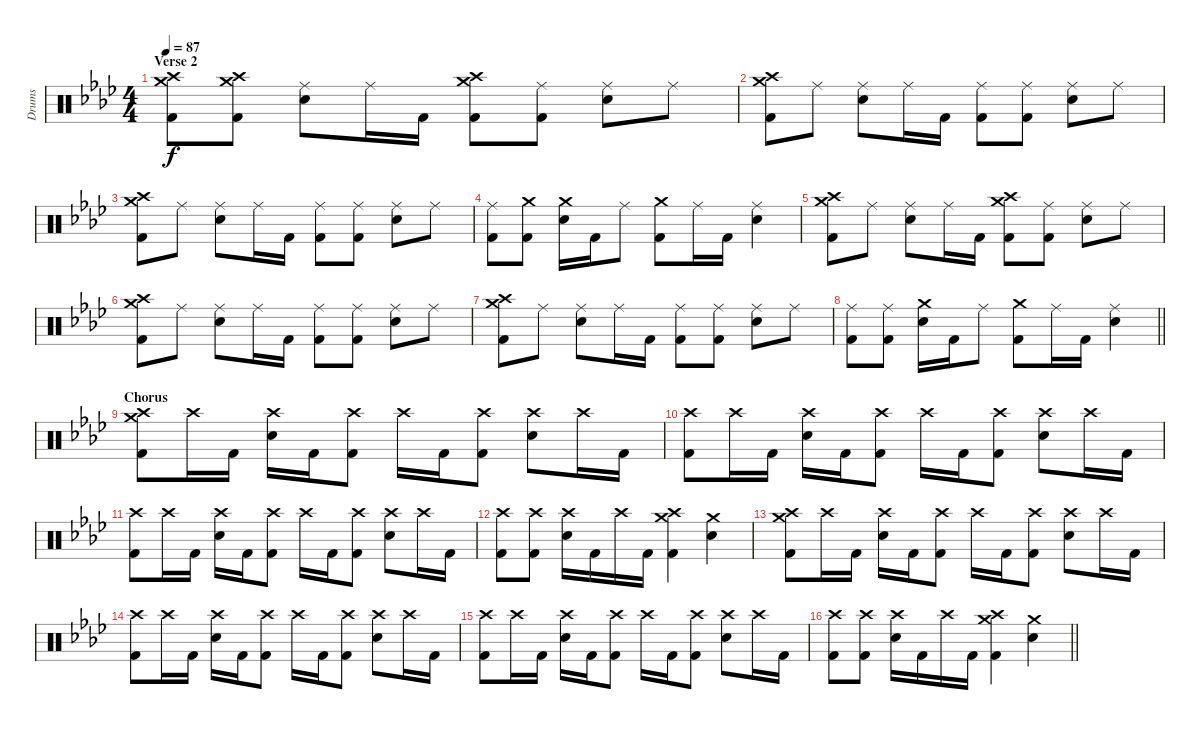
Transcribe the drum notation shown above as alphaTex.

\track ("Drums" "Drums") {instrument percussion}
\staff {score}
\articulation defaults
\ts (4 4)
\section ("" "Verse 2")
\tempo 87
\clef neutral
\ks fminor
("Crash medium (hit)" "Crash high (hit)" "Kick (hit) 2").8{dy f} ("Crash medium (hit)" "Crash high (hit)" "Kick (hit) 2").8 ("Ride (middle)" "Electric Snare (hit)").8 "Ride (middle)".16 "Kick (hit) 2".16 ("Crash medium (hit)" "Crash high (hit)" "Kick (hit) 2").8 ("Ride (middle)" "Kick (hit) 2").8 ("Ride (middle)" "Electric Snare (hit)").8 "Ride (middle)".8 |
("Crash medium (hit)" "Crash high (hit)" "Kick (hit) 2").8 "Ride (middle)".8 ("Ride (middle)" "Electric Snare (hit)").8 "Ride (middle)".16 "Kick (hit) 2".16 ("Ride (middle)" "Kick (hit) 2").8 ("Ride (middle)" "Kick (hit) 2").8 ("Ride (middle)" "Electric Snare (hit)").8 "Ride (middle)".8 |
("Crash medium (hit)" "Crash high (hit)" "Kick (hit) 2").8 "Ride (middle)".8 ("Ride (middle)" "Electric Snare (hit)").8 "Ride (middle)".16 "Kick (hit) 2".16 ("Ride (middle)" "Kick (hit) 2").8 ("Ride (middle)" "Kick (hit) 2").8 ("Ride (middle)" "Electric Snare (hit)").8 "Ride (middle)".8 |
("Ride (middle)" "Kick (hit) 2").8 ("Crash medium (hit)" "Kick (hit) 2").8 ("Crash medium (hit)" "Electric Snare (hit)").16 "Kick (hit) 2".16 "Ride (middle)".8 ("Crash medium (hit)" "Kick (hit) 2").8 "Ride (middle)".16 "Kick (hit) 2".16 ("Ride (middle)" "Electric Snare (hit)").4 |
("Crash medium (hit)" "Crash high (hit)" "Kick (hit) 2").8 "Ride (middle)".8 ("Ride (middle)" "Electric Snare (hit)").8 "Ride (middle)".16 "Kick (hit) 2".16 ("Crash medium (hit)" "Crash high (hit)" "Kick (hit) 2").8 ("Ride (middle)" "Kick (hit) 2").8 ("Ride (middle)" "Electric Snare (hit)").8 "Ride (middle)".8 |
("Crash medium (hit)" "Crash high (hit)" "Kick (hit) 2").8 "Ride (middle)".8 ("Ride (middle)" "Electric Snare (hit)").8 "Ride (middle)".16 "Kick (hit) 2".16 ("Ride (middle)" "Kick (hit) 2").8 ("Ride (middle)" "Kick (hit) 2").8 ("Ride (middle)" "Electric Snare (hit)").8 "Ride (middle)".8 |
("Crash medium (hit)" "Crash high (hit)" "Kick (hit) 2").8 "Ride (middle)".8 ("Ride (middle)" "Electric Snare (hit)").8 "Ride (middle)".16 "Kick (hit) 2".16 ("Ride (middle)" "Kick (hit) 2").8 ("Ride (middle)" "Kick (hit) 2").8 ("Ride (middle)" "Electric Snare (hit)").8 "Ride (middle)".8 |
\barLineRight lightlight
("Ride (middle)" "Kick (hit) 2").8 ("Ride (middle)" "Kick (hit) 2").8 ("Crash medium (hit)" "Electric Snare (hit)").16 "Kick (hit) 2".16 "Ride (middle)".8 ("Crash medium (hit)" "Kick (hit) 2").8 "Ride (middle)".16 "Kick (hit) 2".16 ("Ride (middle)" "Electric Snare (hit)").4 |
\section ("" "Chorus")
("Crash medium (hit)" "Crash high (hit)" "Kick (hit) 2").8 "Crash high (hit)".16 "Kick (hit) 2".16 ("Crash high (hit)" "Electric Snare (hit)").16 "Kick (hit) 2".16 ("Crash high (hit)" "Kick (hit) 2").8 "Crash high (hit)".16 "Kick (hit) 2".16 ("Crash high (hit)" "Kick (hit) 2").8 ("Crash high (hit)" "Electric Snare (hit)").8 "Crash high (hit)".16 "Kick (hit) 2".16 |
("Crash high (hit)" "Kick (hit) 2").8 "Crash high (hit)".16 "Kick (hit) 2".16 ("Crash high (hit)" "Electric Snare (hit)").16 "Kick (hit) 2".16 ("Crash high (hit)" "Kick (hit) 2").8 "Crash high (hit)".16 "Kick (hit) 2".16 ("Crash high (hit)" "Kick (hit) 2").8 ("Crash high (hit)" "Electric Snare (hit)").8 "Crash high (hit)".16 "Kick (hit) 2".16 |
("Crash high (hit)" "Kick (hit) 2").8 "Crash high (hit)".16 "Kick (hit) 2".16 ("Crash high (hit)" "Electric Snare (hit)").16 "Kick (hit) 2".16 ("Crash high (hit)" "Kick (hit) 2").8 "Crash high (hit)".16 "Kick (hit) 2".16 ("Crash high (hit)" "Kick (hit) 2").8 ("Crash high (hit)" "Electric Snare (hit)").8 "Crash high (hit)".16 "Kick (hit) 2".16 |
("Crash high (hit)" "Kick (hit) 2").8 ("Crash high (hit)" "Kick (hit) 2").8 ("Crash high (hit)" "Electric Snare (hit)").16 "Kick (hit) 2".16 "Crash high (hit)".16 "Kick (hit) 2".16 ("Crash medium (hit)" "Crash high (hit)" "Kick (hit) 2").4 ("Crash medium (hit)" "Electric Snare (hit)").4 |
("Crash medium (hit)" "Crash high (hit)" "Kick (hit) 2").8 "Crash high (hit)".16 "Kick (hit) 2".16 ("Crash high (hit)" "Electric Snare (hit)").16 "Kick (hit) 2".16 ("Crash high (hit)" "Kick (hit) 2").8 "Crash high (hit)".16 "Kick (hit) 2".16 ("Crash high (hit)" "Kick (hit) 2").8 ("Crash high (hit)" "Electric Snare (hit)").8 "Crash high (hit)".16 "Kick (hit) 2".16 |
("Crash high (hit)" "Kick (hit) 2").8 "Crash high (hit)".16 "Kick (hit) 2".16 ("Crash high (hit)" "Electric Snare (hit)").16 "Kick (hit) 2".16 ("Crash high (hit)" "Kick (hit) 2").8 "Crash high (hit)".16 "Kick (hit) 2".16 ("Crash high (hit)" "Kick (hit) 2").8 ("Crash high (hit)" "Electric Snare (hit)").8 "Crash high (hit)".16 "Kick (hit) 2".16 |
("Crash high (hit)" "Kick (hit) 2").8 "Crash high (hit)".16 "Kick (hit) 2".16 ("Crash high (hit)" "Electric Snare (hit)").16 "Kick (hit) 2".16 ("Crash high (hit)" "Kick (hit) 2").8 "Crash high (hit)".16 "Kick (hit) 2".16 ("Crash high (hit)" "Kick (hit) 2").8 ("Crash high (hit)" "Electric Snare (hit)").8 "Crash high (hit)".16 "Kick (hit) 2".16 |
\barLineRight lightlight
("Crash high (hit)" "Kick (hit) 2").8 ("Crash high (hit)" "Kick (hit) 2").8 ("Crash high (hit)" "Electric Snare (hit)").16 "Kick (hit) 2".16 "Crash high (hit)".16 "Kick (hit) 2".16 ("Crash medium (hit)" "Crash high (hit)" "Kick (hit) 2").4 ("Crash medium (hit)" "Electric Snare (hit)").4
